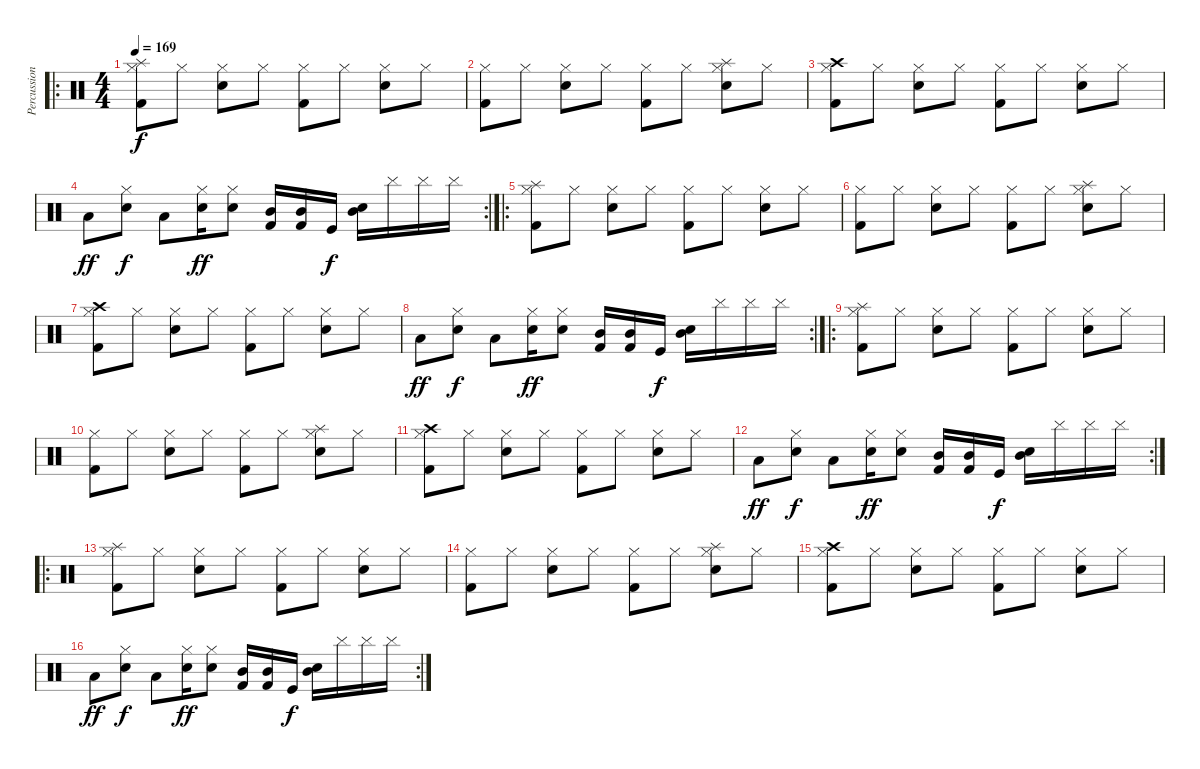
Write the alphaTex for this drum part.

\track ("Percussion" "Percussion") {instrument percussion}
\staff {score}
\articulation defaults
\ro
\ts (4 4)
\tempo 169
\clef neutral
\ks c
("Hi-Hat (closed)" "Kick (hit) 2" "Splash (hit)").8{dy f} "Hi-Hat (closed)".8 ("Hi-Hat (closed)" "Snare (hit) 2").8 "Hi-Hat (closed)".8 ("Hi-Hat (closed)" "Kick (hit) 2").8 "Hi-Hat (closed)".8 ("Hi-Hat (closed)" "Snare (hit) 2").8 "Hi-Hat (closed)".8 |
("Hi-Hat (closed)" "Kick (hit) 2").8 "Hi-Hat (closed)".8 ("Hi-Hat (closed)" "Snare (hit) 2").8 "Hi-Hat (closed)".8 ("Hi-Hat (closed)" "Kick (hit) 2").8 "Hi-Hat (closed)".8 ("Hi-Hat (closed)" "Snare (hit) 2" "Splash (hit)").8 "Hi-Hat (closed)".8 |
("Hi-Hat (closed)" "Kick (hit) 2" "Crash high (hit)").8 "Hi-Hat (closed)".8 ("Hi-Hat (closed)" "Snare (hit) 2").8 "Hi-Hat (closed)".8 ("Hi-Hat (closed)" "Kick (hit) 2").8 "Hi-Hat (closed)".8 ("Hi-Hat (closed)" "Snare (hit) 2").8 "Hi-Hat (closed)".8 |
\rc 2 "Low Tom (hit)".8{dy ff}
("Hi-Hat (closed)" "Electric Snare (hit)").8{dy f} "Low Tom (hit)".8 ("Electric Snare (hit)" "Hi-Hat (closed)").16{dy ff} ("Electric Snare (hit)" "Hi-Hat (closed)").8 ("Kick (hit) 2" "Mid Tom (hit)").16 ("Kick (hit) 2" "Mid Tom (hit)").16 "Kick (hit)".16{dy f} ("Electric Snare (hit)" "Mid Tom (hit)").16 "Cymbal (hit)".16 "Cymbal (hit)".16 "Cymbal (hit)".16 |
\ro
("Hi-Hat (closed)" "Kick (hit) 2" "Splash (hit)").8 "Hi-Hat (closed)".8 ("Hi-Hat (closed)" "Snare (hit) 2").8 "Hi-Hat (closed)".8 ("Hi-Hat (closed)" "Kick (hit) 2").8 "Hi-Hat (closed)".8 ("Hi-Hat (closed)" "Snare (hit) 2").8 "Hi-Hat (closed)".8 |
("Hi-Hat (closed)" "Kick (hit) 2").8 "Hi-Hat (closed)".8 ("Hi-Hat (closed)" "Snare (hit) 2").8 "Hi-Hat (closed)".8 ("Hi-Hat (closed)" "Kick (hit) 2").8 "Hi-Hat (closed)".8 ("Hi-Hat (closed)" "Snare (hit) 2" "Splash (hit)").8 "Hi-Hat (closed)".8 |
("Hi-Hat (closed)" "Kick (hit) 2" "Crash high (hit)").8 "Hi-Hat (closed)".8 ("Hi-Hat (closed)" "Snare (hit) 2").8 "Hi-Hat (closed)".8 ("Hi-Hat (closed)" "Kick (hit) 2").8 "Hi-Hat (closed)".8 ("Hi-Hat (closed)" "Snare (hit) 2").8 "Hi-Hat (closed)".8 |
\rc 2 "Low Tom (hit)".8{dy ff}
("Hi-Hat (closed)" "Electric Snare (hit)").8{dy f} "Low Tom (hit)".8 ("Electric Snare (hit)" "Hi-Hat (closed)").16{dy ff} ("Electric Snare (hit)" "Hi-Hat (closed)").8 ("Kick (hit) 2" "Mid Tom (hit)").16 ("Kick (hit) 2" "Mid Tom (hit)").16 "Kick (hit)".16{dy f} ("Electric Snare (hit)" "Mid Tom (hit)").16 "Cymbal (hit)".16 "Cymbal (hit)".16 "Cymbal (hit)".16 |
\ro
("Hi-Hat (closed)" "Kick (hit) 2" "Splash (hit)").8 "Hi-Hat (closed)".8 ("Hi-Hat (closed)" "Snare (hit) 2").8 "Hi-Hat (closed)".8 ("Hi-Hat (closed)" "Kick (hit) 2").8 "Hi-Hat (closed)".8 ("Hi-Hat (closed)" "Snare (hit) 2").8 "Hi-Hat (closed)".8 |
("Hi-Hat (closed)" "Kick (hit) 2").8 "Hi-Hat (closed)".8 ("Hi-Hat (closed)" "Snare (hit) 2").8 "Hi-Hat (closed)".8 ("Hi-Hat (closed)" "Kick (hit) 2").8 "Hi-Hat (closed)".8 ("Hi-Hat (closed)" "Snare (hit) 2" "Splash (hit)").8 "Hi-Hat (closed)".8 |
("Hi-Hat (closed)" "Kick (hit) 2" "Crash high (hit)").8 "Hi-Hat (closed)".8 ("Hi-Hat (closed)" "Snare (hit) 2").8 "Hi-Hat (closed)".8 ("Hi-Hat (closed)" "Kick (hit) 2").8 "Hi-Hat (closed)".8 ("Hi-Hat (closed)" "Snare (hit) 2").8 "Hi-Hat (closed)".8 |
\rc 2 "Low Tom (hit)".8{dy ff}
("Hi-Hat (closed)" "Electric Snare (hit)").8{dy f} "Low Tom (hit)".8 ("Electric Snare (hit)" "Hi-Hat (closed)").16{dy ff} ("Electric Snare (hit)" "Hi-Hat (closed)").8 ("Kick (hit) 2" "Mid Tom (hit)").16 ("Kick (hit) 2" "Mid Tom (hit)").16 "Kick (hit)".16{dy f} ("Electric Snare (hit)" "Mid Tom (hit)").16 "Cymbal (hit)".16 "Cymbal (hit)".16 "Cymbal (hit)".16 |
\ro
("Hi-Hat (closed)" "Kick (hit) 2" "Splash (hit)").8 "Hi-Hat (closed)".8 ("Hi-Hat (closed)" "Snare (hit) 2").8 "Hi-Hat (closed)".8 ("Hi-Hat (closed)" "Kick (hit) 2").8 "Hi-Hat (closed)".8 ("Hi-Hat (closed)" "Snare (hit) 2").8 "Hi-Hat (closed)".8 |
("Hi-Hat (closed)" "Kick (hit) 2").8 "Hi-Hat (closed)".8 ("Hi-Hat (closed)" "Snare (hit) 2").8 "Hi-Hat (closed)".8 ("Hi-Hat (closed)" "Kick (hit) 2").8 "Hi-Hat (closed)".8 ("Hi-Hat (closed)" "Snare (hit) 2" "Splash (hit)").8 "Hi-Hat (closed)".8 |
("Hi-Hat (closed)" "Kick (hit) 2" "Crash high (hit)").8 "Hi-Hat (closed)".8 ("Hi-Hat (closed)" "Snare (hit) 2").8 "Hi-Hat (closed)".8 ("Hi-Hat (closed)" "Kick (hit) 2").8 "Hi-Hat (closed)".8 ("Hi-Hat (closed)" "Snare (hit) 2").8 "Hi-Hat (closed)".8 |
\rc 2 "Low Tom (hit)".8{dy ff}
("Hi-Hat (closed)" "Electric Snare (hit)").8{dy f} "Low Tom (hit)".8 ("Electric Snare (hit)" "Hi-Hat (closed)").16{dy ff} ("Electric Snare (hit)" "Hi-Hat (closed)").8 ("Kick (hit) 2" "Mid Tom (hit)").16 ("Kick (hit) 2" "Mid Tom (hit)").16 "Kick (hit)".16{dy f} ("Electric Snare (hit)" "Mid Tom (hit)").16 "Cymbal (hit)".16 "Cymbal (hit)".16 "Cymbal (hit)".16
